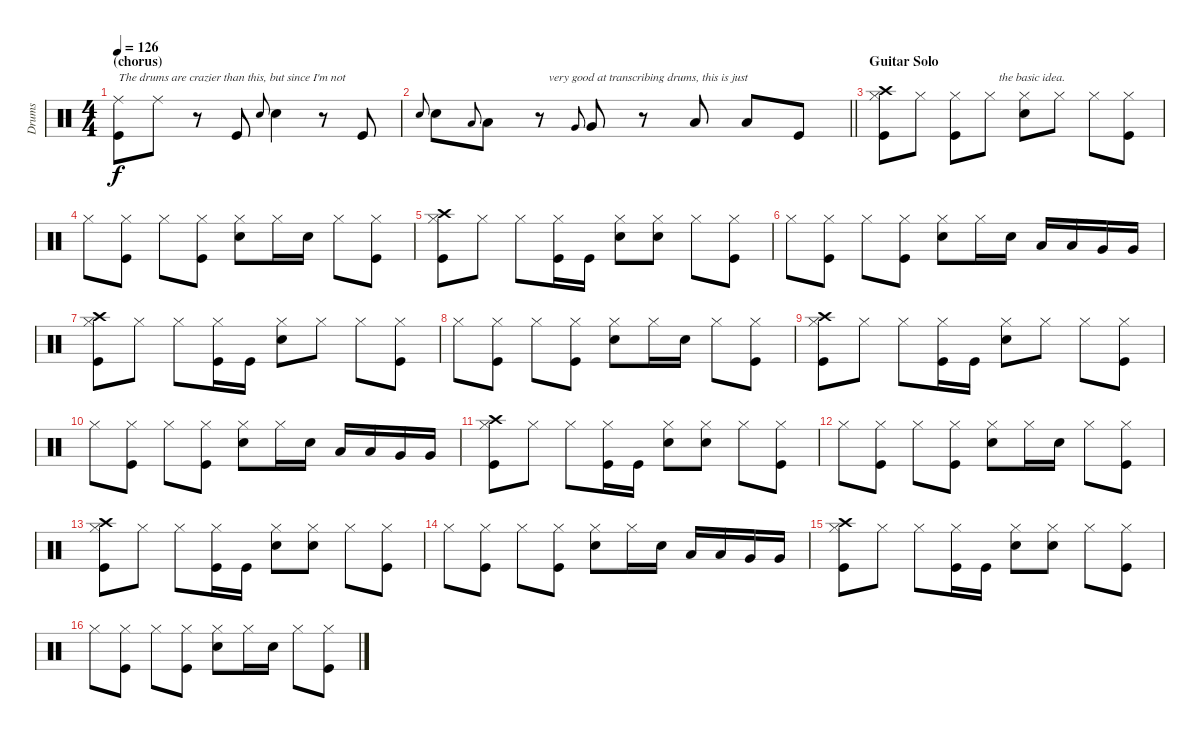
\track ("Drums" "Drums") {instrument percussion}
\staff {score}
\articulation defaults
\ts (4 4)
\section ("" "(chorus)")
\tempo 126
\clef neutral
\ks c
("Ride (middle)" "Kick (hit)").8{txt "The drums are crazier than this, but since I'm not" dy f volume 6} "Ride (middle)".8 r.8 "Kick (hit)".8 "Snare (hit) 2".8{gr onbeat} "Snare (hit) 2".4 r.8 "Kick (hit)".8 |
\barLineRight lightlight "Snare (hit) 2".8{gr onbeat} "Snare (hit) 2".8 "Low Tom (hit)".8{gr onbeat} "Low Tom (hit)".8
r.8{txt "   very good at transcribing drums, this is just"} "Very Low Tom (hit)".8{gr onbeat} "Very Low Tom (hit)".8 r.8 "Low Floor Tom (hit)".8 "Low Floor Tom (hit)".8 "Kick (hit)".8 |
\section ("" "Guitar Solo")
("Hi-Hat (closed)" "Crash high (hit)" "Kick (hit)").8 "Hi-Hat (closed)".8 ("Hi-Hat (closed)" "Kick (hit)").8 "Hi-Hat (closed)".8{txt "   the basic idea."} ("Hi-Hat (closed)" "Snare (hit) 2").8 "Hi-Hat (closed)".8 "Hi-Hat (closed)".8 ("Hi-Hat (closed)" "Kick (hit)").8 |
"Hi-Hat (closed)".8 ("Hi-Hat (closed)" "Kick (hit)").8 "Hi-Hat (closed)".8 ("Hi-Hat (closed)" "Kick (hit)").8 ("Hi-Hat (closed)" "Snare (hit) 2").8 "Hi-Hat (closed)".16 "Snare (hit) 2".16 "Hi-Hat (closed)".8 ("Hi-Hat (closed)" "Kick (hit)").8 |
("Hi-Hat (closed)" "Crash high (hit)" "Kick (hit)").8 "Hi-Hat (closed)".8 "Hi-Hat (closed)".8 ("Hi-Hat (closed)" "Kick (hit)").16 "Kick (hit)".16 ("Hi-Hat (closed)" "Snare (hit) 2").8 ("Hi-Hat (closed)" "Snare (hit) 2").8 "Hi-Hat (closed)".8 ("Hi-Hat (closed)" "Kick (hit)").8 |
"Hi-Hat (closed)".8 ("Hi-Hat (closed)" "Kick (hit)").8 "Hi-Hat (closed)".8 ("Hi-Hat (closed)" "Kick (hit)").8 ("Hi-Hat (closed)" "Snare (hit) 2").8 "Hi-Hat (closed)".16 "Snare (hit) 2".16 "Low Tom (hit)".16 "Low Tom (hit)".16 "Very Low Tom (hit)".16 "Very Low Tom (hit)".16 |
("Hi-Hat (closed)" "Crash high (hit)" "Kick (hit)").8 "Hi-Hat (closed)".8 "Hi-Hat (closed)".8 ("Hi-Hat (closed)" "Kick (hit)").16 "Kick (hit)".16 ("Hi-Hat (closed)" "Snare (hit) 2").8 "Hi-Hat (closed)".8 "Hi-Hat (closed)".8 ("Hi-Hat (closed)" "Kick (hit)").8 |
"Hi-Hat (closed)".8 ("Hi-Hat (closed)" "Kick (hit)").8 "Hi-Hat (closed)".8 ("Hi-Hat (closed)" "Kick (hit)").8 ("Hi-Hat (closed)" "Snare (hit) 2").8 "Hi-Hat (closed)".16 "Snare (hit) 2".16 "Hi-Hat (closed)".8 ("Hi-Hat (closed)" "Kick (hit)").8 |
("Hi-Hat (closed)" "Crash high (hit)" "Kick (hit)").8 "Hi-Hat (closed)".8 "Hi-Hat (closed)".8 ("Hi-Hat (closed)" "Kick (hit)").16 "Kick (hit)".16 ("Hi-Hat (closed)" "Snare (hit) 2").8 "Hi-Hat (closed)".8 "Hi-Hat (closed)".8 ("Hi-Hat (closed)" "Kick (hit)").8 |
"Hi-Hat (closed)".8 ("Hi-Hat (closed)" "Kick (hit)").8 "Hi-Hat (closed)".8 ("Hi-Hat (closed)" "Kick (hit)").8 ("Hi-Hat (closed)" "Snare (hit) 2").8 "Hi-Hat (closed)".16 "Snare (hit) 2".16 "Low Tom (hit)".16 "Low Tom (hit)".16 "Very Low Tom (hit)".16 "Very Low Tom (hit)".16 |
("Hi-Hat (closed)" "Crash high (hit)" "Kick (hit)").8 "Hi-Hat (closed)".8 "Hi-Hat (closed)".8 ("Hi-Hat (closed)" "Kick (hit)").16 "Kick (hit)".16 ("Hi-Hat (closed)" "Snare (hit) 2").8 ("Hi-Hat (closed)" "Snare (hit) 2").8 "Hi-Hat (closed)".8 ("Hi-Hat (closed)" "Kick (hit)").8 |
"Hi-Hat (closed)".8 ("Hi-Hat (closed)" "Kick (hit)").8 "Hi-Hat (closed)".8 ("Hi-Hat (closed)" "Kick (hit)").8 ("Hi-Hat (closed)" "Snare (hit) 2").8 "Hi-Hat (closed)".16 "Snare (hit) 2".16 "Hi-Hat (closed)".8 ("Hi-Hat (closed)" "Kick (hit)").8 |
("Hi-Hat (closed)" "Crash high (hit)" "Kick (hit)").8 "Hi-Hat (closed)".8 "Hi-Hat (closed)".8 ("Hi-Hat (closed)" "Kick (hit)").16 "Kick (hit)".16 ("Hi-Hat (closed)" "Snare (hit) 2").8 ("Hi-Hat (closed)" "Snare (hit) 2").8 "Hi-Hat (closed)".8 ("Hi-Hat (closed)" "Kick (hit)").8 |
"Hi-Hat (closed)".8 ("Hi-Hat (closed)" "Kick (hit)").8 "Hi-Hat (closed)".8 ("Hi-Hat (closed)" "Kick (hit)").8 ("Hi-Hat (closed)" "Snare (hit) 2").8 "Hi-Hat (closed)".16 "Snare (hit) 2".16 "Low Tom (hit)".16 "Low Tom (hit)".16 "Very Low Tom (hit)".16 "Very Low Tom (hit)".16 |
("Hi-Hat (closed)" "Crash high (hit)" "Kick (hit)").8 "Hi-Hat (closed)".8 "Hi-Hat (closed)".8 ("Hi-Hat (closed)" "Kick (hit)").16 "Kick (hit)".16 ("Hi-Hat (closed)" "Snare (hit) 2").8 ("Hi-Hat (closed)" "Snare (hit) 2").8 "Hi-Hat (closed)".8 ("Hi-Hat (closed)" "Kick (hit)").8 |
"Hi-Hat (closed)".8 ("Hi-Hat (closed)" "Kick (hit)").8 "Hi-Hat (closed)".8 ("Hi-Hat (closed)" "Kick (hit)").8 ("Hi-Hat (closed)" "Snare (hit) 2").8 "Hi-Hat (closed)".16 "Snare (hit) 2".16 "Hi-Hat (closed)".8 ("Hi-Hat (closed)" "Kick (hit)").8
